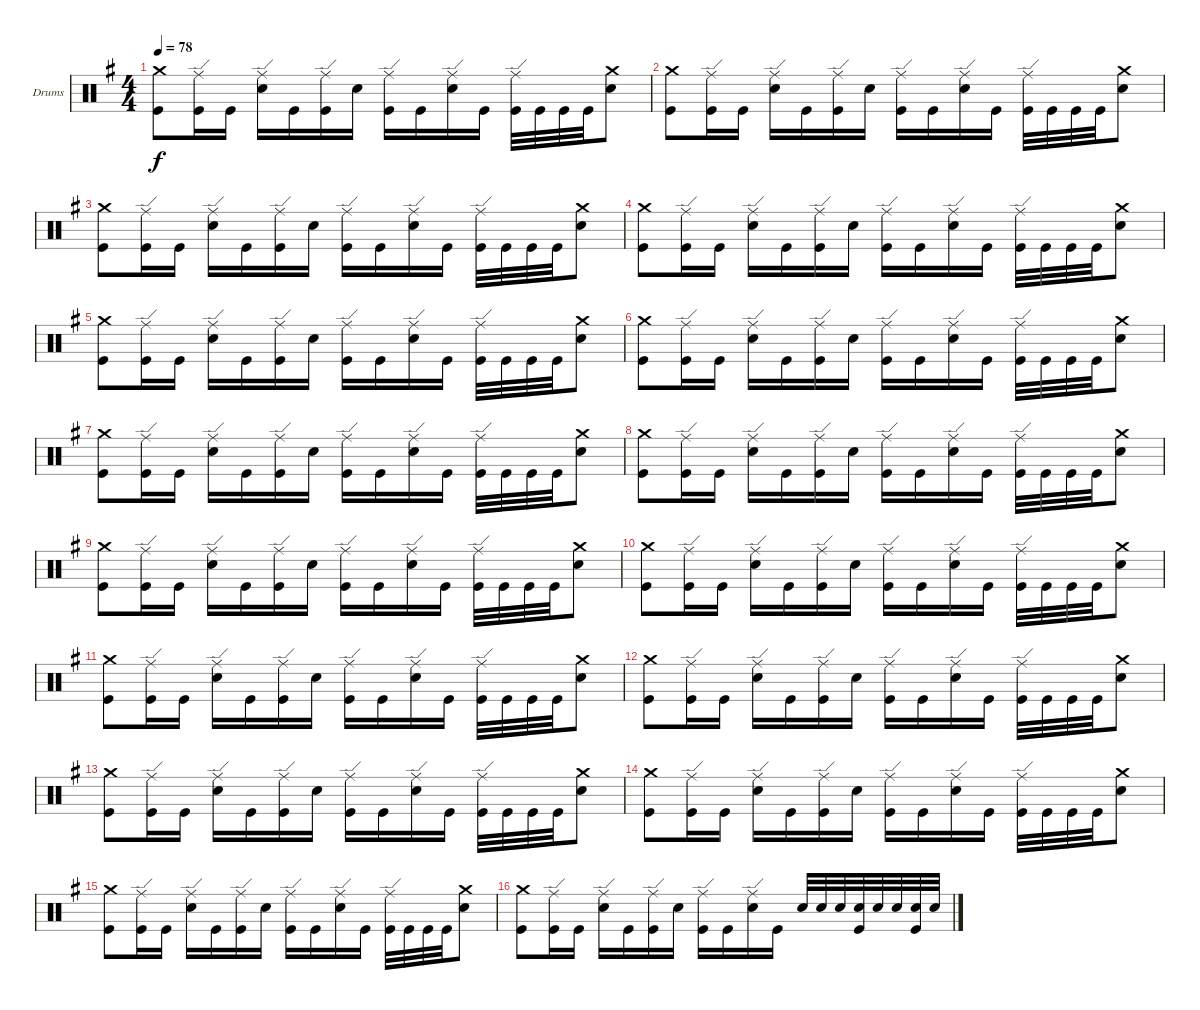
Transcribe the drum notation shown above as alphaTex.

\defaultSystemsLayout 4
\bracketExtendMode groupsimilarinstruments
\firstSystemTrackNameOrientation horizontal
\otherSystemsTrackNameOrientation horizontal
\track ("Drumkit" "Drums") {instrument percussion}
\staff {score}
\articulation defaults
\ts (4 4)
\tempo 78
\clef neutral
\ks g
("Crash medium (hit)" "Kick (hit)").8{dy f} ("Ride (edge)" "Kick (hit)").16 "Kick (hit)".16 ("Ride (edge)" "Snare (hit) 2").16 "Kick (hit)".16 ("Ride (edge)" "Kick (hit)").16 "Snare (hit) 2".16 ("Ride (edge)" "Kick (hit)").16 "Kick (hit)".16 ("Ride (edge)" "Snare (hit) 2").16 "Kick (hit)".16 ("Ride (edge)" "Kick (hit)").32 "Kick (hit)".32 "Kick (hit)".32 "Kick (hit)".32 ("Crash medium (hit)" "Snare (hit) 2").8 |
("Crash medium (hit)" "Kick (hit)").8 ("Ride (edge)" "Kick (hit)").16 "Kick (hit)".16 ("Ride (edge)" "Snare (hit) 2").16 "Kick (hit)".16 ("Ride (edge)" "Kick (hit)").16 "Snare (hit) 2".16 ("Ride (edge)" "Kick (hit)").16 "Kick (hit)".16 ("Ride (edge)" "Snare (hit) 2").16 "Kick (hit)".16 ("Ride (edge)" "Kick (hit)").32 "Kick (hit)".32 "Kick (hit)".32 "Kick (hit)".32 ("Crash medium (hit)" "Snare (hit) 2").8 |
("Crash medium (hit)" "Kick (hit)").8 ("Ride (edge)" "Kick (hit)").16 "Kick (hit)".16 ("Ride (edge)" "Snare (hit) 2").16 "Kick (hit)".16 ("Ride (edge)" "Kick (hit)").16 "Snare (hit) 2".16 ("Ride (edge)" "Kick (hit)").16 "Kick (hit)".16 ("Ride (edge)" "Snare (hit) 2").16 "Kick (hit)".16 ("Ride (edge)" "Kick (hit)").32 "Kick (hit)".32 "Kick (hit)".32 "Kick (hit)".32 ("Crash medium (hit)" "Snare (hit) 2").8 |
("Crash medium (hit)" "Kick (hit)").8 ("Ride (edge)" "Kick (hit)").16 "Kick (hit)".16 ("Ride (edge)" "Snare (hit) 2").16 "Kick (hit)".16 ("Ride (edge)" "Kick (hit)").16 "Snare (hit) 2".16 ("Ride (edge)" "Kick (hit)").16 "Kick (hit)".16 ("Ride (edge)" "Snare (hit) 2").16 "Kick (hit)".16 ("Ride (edge)" "Kick (hit)").32 "Kick (hit)".32 "Kick (hit)".32 "Kick (hit)".32 ("Crash medium (hit)" "Snare (hit) 2").8 |
("Crash medium (hit)" "Kick (hit)").8 ("Ride (edge)" "Kick (hit)").16 "Kick (hit)".16 ("Ride (edge)" "Snare (hit) 2").16 "Kick (hit)".16 ("Ride (edge)" "Kick (hit)").16 "Snare (hit) 2".16 ("Ride (edge)" "Kick (hit)").16 "Kick (hit)".16 ("Ride (edge)" "Snare (hit) 2").16 "Kick (hit)".16 ("Ride (edge)" "Kick (hit)").32 "Kick (hit)".32 "Kick (hit)".32 "Kick (hit)".32 ("Crash medium (hit)" "Snare (hit) 2").8 |
("Crash medium (hit)" "Kick (hit)").8 ("Ride (edge)" "Kick (hit)").16 "Kick (hit)".16 ("Ride (edge)" "Snare (hit) 2").16 "Kick (hit)".16 ("Ride (edge)" "Kick (hit)").16 "Snare (hit) 2".16 ("Ride (edge)" "Kick (hit)").16 "Kick (hit)".16 ("Ride (edge)" "Snare (hit) 2").16 "Kick (hit)".16 ("Ride (edge)" "Kick (hit)").32 "Kick (hit)".32 "Kick (hit)".32 "Kick (hit)".32 ("Crash medium (hit)" "Snare (hit) 2").8 |
("Crash medium (hit)" "Kick (hit)").8 ("Ride (edge)" "Kick (hit)").16 "Kick (hit)".16 ("Ride (edge)" "Snare (hit) 2").16 "Kick (hit)".16 ("Ride (edge)" "Kick (hit)").16 "Snare (hit) 2".16 ("Ride (edge)" "Kick (hit)").16 "Kick (hit)".16 ("Ride (edge)" "Snare (hit) 2").16 "Kick (hit)".16 ("Ride (edge)" "Kick (hit)").32 "Kick (hit)".32 "Kick (hit)".32 "Kick (hit)".32 ("Crash medium (hit)" "Snare (hit) 2").8 |
("Crash medium (hit)" "Kick (hit)").8 ("Ride (edge)" "Kick (hit)").16 "Kick (hit)".16 ("Ride (edge)" "Snare (hit) 2").16 "Kick (hit)".16 ("Ride (edge)" "Kick (hit)").16 "Snare (hit) 2".16 ("Ride (edge)" "Kick (hit)").16 "Kick (hit)".16 ("Ride (edge)" "Snare (hit) 2").16 "Kick (hit)".16 ("Ride (edge)" "Kick (hit)").32 "Kick (hit)".32 "Kick (hit)".32 "Kick (hit)".32 ("Crash medium (hit)" "Snare (hit) 2").8 |
("Crash medium (hit)" "Kick (hit)").8 ("Ride (edge)" "Kick (hit)").16 "Kick (hit)".16 ("Ride (edge)" "Snare (hit) 2").16 "Kick (hit)".16 ("Ride (edge)" "Kick (hit)").16 "Snare (hit) 2".16 ("Ride (edge)" "Kick (hit)").16 "Kick (hit)".16 ("Ride (edge)" "Snare (hit) 2").16 "Kick (hit)".16 ("Ride (edge)" "Kick (hit)").32 "Kick (hit)".32 "Kick (hit)".32 "Kick (hit)".32 ("Crash medium (hit)" "Snare (hit) 2").8 |
("Crash medium (hit)" "Kick (hit)").8 ("Ride (edge)" "Kick (hit)").16 "Kick (hit)".16 ("Ride (edge)" "Snare (hit) 2").16 "Kick (hit)".16 ("Ride (edge)" "Kick (hit)").16 "Snare (hit) 2".16 ("Ride (edge)" "Kick (hit)").16 "Kick (hit)".16 ("Ride (edge)" "Snare (hit) 2").16 "Kick (hit)".16 ("Ride (edge)" "Kick (hit)").32 "Kick (hit)".32 "Kick (hit)".32 "Kick (hit)".32 ("Crash medium (hit)" "Snare (hit) 2").8 |
("Crash medium (hit)" "Kick (hit)").8 ("Ride (edge)" "Kick (hit)").16 "Kick (hit)".16 ("Ride (edge)" "Snare (hit) 2").16 "Kick (hit)".16 ("Ride (edge)" "Kick (hit)").16 "Snare (hit) 2".16 ("Ride (edge)" "Kick (hit)").16 "Kick (hit)".16 ("Ride (edge)" "Snare (hit) 2").16 "Kick (hit)".16 ("Ride (edge)" "Kick (hit)").32 "Kick (hit)".32 "Kick (hit)".32 "Kick (hit)".32 ("Crash medium (hit)" "Snare (hit) 2").8 |
("Crash medium (hit)" "Kick (hit)").8 ("Ride (edge)" "Kick (hit)").16 "Kick (hit)".16 ("Ride (edge)" "Snare (hit) 2").16 "Kick (hit)".16 ("Ride (edge)" "Kick (hit)").16 "Snare (hit) 2".16 ("Ride (edge)" "Kick (hit)").16 "Kick (hit)".16 ("Ride (edge)" "Snare (hit) 2").16 "Kick (hit)".16 ("Ride (edge)" "Kick (hit)").32 "Kick (hit)".32 "Kick (hit)".32 "Kick (hit)".32 ("Crash medium (hit)" "Snare (hit) 2").8 |
("Crash medium (hit)" "Kick (hit)").8 ("Ride (edge)" "Kick (hit)").16 "Kick (hit)".16 ("Ride (edge)" "Snare (hit) 2").16 "Kick (hit)".16 ("Ride (edge)" "Kick (hit)").16 "Snare (hit) 2".16 ("Ride (edge)" "Kick (hit)").16 "Kick (hit)".16 ("Ride (edge)" "Snare (hit) 2").16 "Kick (hit)".16 ("Ride (edge)" "Kick (hit)").32 "Kick (hit)".32 "Kick (hit)".32 "Kick (hit)".32 ("Crash medium (hit)" "Snare (hit) 2").8 |
("Crash medium (hit)" "Kick (hit)").8 ("Ride (edge)" "Kick (hit)").16 "Kick (hit)".16 ("Ride (edge)" "Snare (hit) 2").16 "Kick (hit)".16 ("Ride (edge)" "Kick (hit)").16 "Snare (hit) 2".16 ("Ride (edge)" "Kick (hit)").16 "Kick (hit)".16 ("Ride (edge)" "Snare (hit) 2").16 "Kick (hit)".16 ("Ride (edge)" "Kick (hit)").32 "Kick (hit)".32 "Kick (hit)".32 "Kick (hit)".32 ("Crash medium (hit)" "Snare (hit) 2").8 |
("Crash medium (hit)" "Kick (hit)").8 ("Ride (edge)" "Kick (hit)").16 "Kick (hit)".16 ("Ride (edge)" "Snare (hit) 2").16 "Kick (hit)".16 ("Ride (edge)" "Kick (hit)").16 "Snare (hit) 2".16 ("Ride (edge)" "Kick (hit)").16 "Kick (hit)".16 ("Ride (edge)" "Snare (hit) 2").16 "Kick (hit)".16 ("Ride (edge)" "Kick (hit)").32 "Kick (hit)".32 "Kick (hit)".32 "Kick (hit)".32 ("Crash medium (hit)" "Snare (hit) 2").8 |
("Crash medium (hit)" "Kick (hit)").8 ("Ride (edge)" "Kick (hit)").16 "Kick (hit)".16 ("Ride (edge)" "Snare (hit) 2").16 "Kick (hit)".16 ("Ride (edge)" "Kick (hit)").16 "Snare (hit) 2".16 ("Ride (edge)" "Kick (hit)").16 "Kick (hit)".16 ("Ride (edge)" "Snare (hit) 2").16 "Kick (hit)".16 "Snare (hit) 2".32 "Snare (hit) 2".32 "Snare (hit) 2".32 ("Snare (hit) 2" "Kick (hit)").32 "Snare (hit) 2".32 "Snare (hit) 2".32 ("Snare (hit) 2" "Kick (hit)").32 "Snare (hit) 2".32
